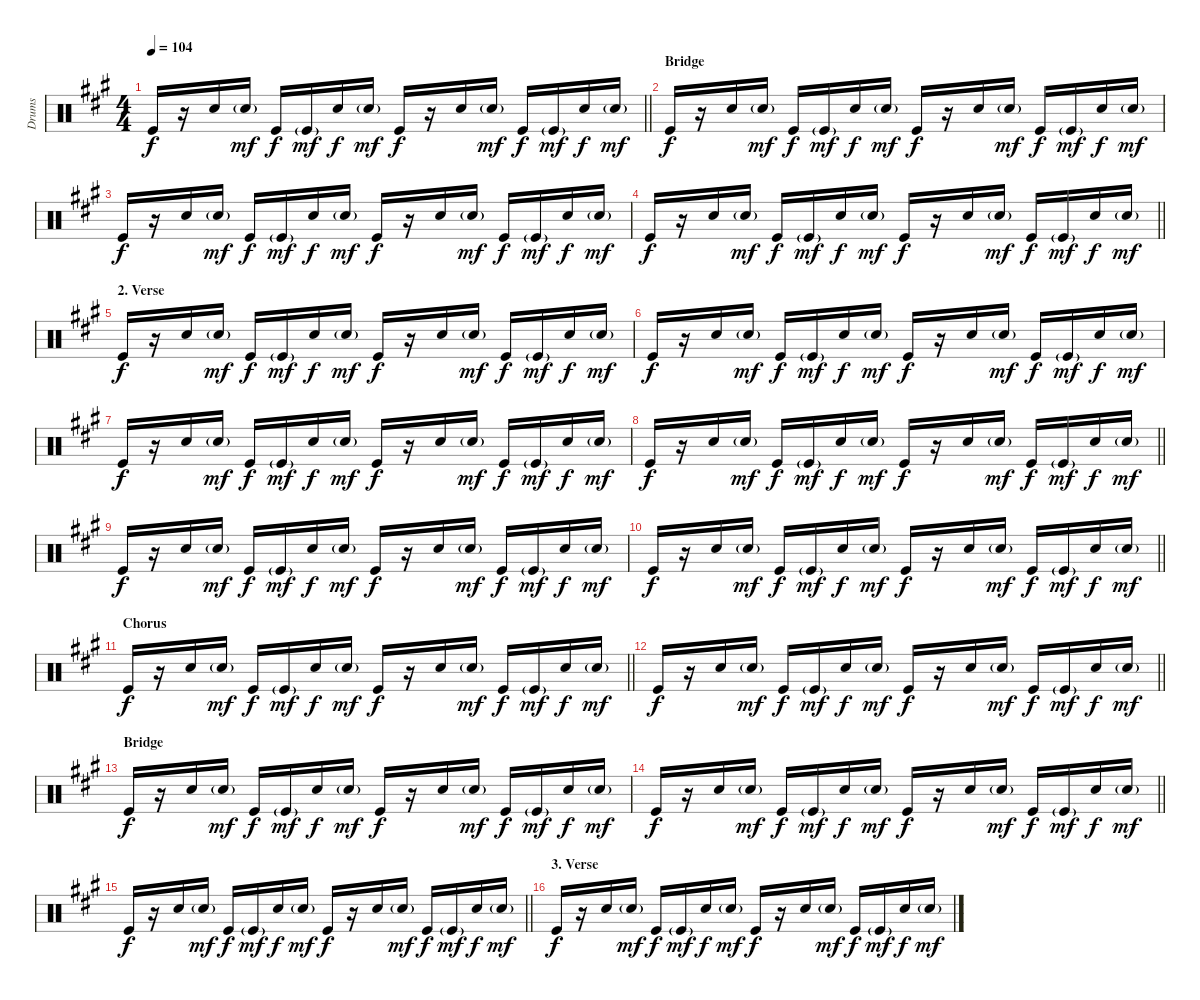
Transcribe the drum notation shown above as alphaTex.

\track ("Drums" "Drums") {mute instrument percussion}
\staff {score}
\articulation defaults
\ts (4 4)
\tempo 104
\clef neutral
\barLineRight lightlight
\ks a "Kick (hit)".16{dy f}
r.16 "Snare (hit) 2".16 "Snare (hit) 2"{g}.16{dy mf} "Kick (hit)".16{dy f} "Kick (hit)"{g}.16{dy mf} "Snare (hit) 2".16{dy f} "Snare (hit) 2"{g}.16{dy mf} "Kick (hit)".16{dy f} r.16 "Snare (hit) 2".16 "Snare (hit) 2"{g}.16{dy mf} "Kick (hit)".16{dy f} "Kick (hit)"{g}.16{dy mf} "Snare (hit) 2".16{dy f} "Snare (hit) 2"{g}.16{dy mf} |
\section ("" "Bridge")
"Kick (hit)".16{dy f} r.16 "Snare (hit) 2".16 "Snare (hit) 2"{g}.16{dy mf} "Kick (hit)".16{dy f} "Kick (hit)"{g}.16{dy mf} "Snare (hit) 2".16{dy f} "Snare (hit) 2"{g}.16{dy mf} "Kick (hit)".16{dy f} r.16 "Snare (hit) 2".16 "Snare (hit) 2"{g}.16{dy mf} "Kick (hit)".16{dy f} "Kick (hit)"{g}.16{dy mf} "Snare (hit) 2".16{dy f} "Snare (hit) 2"{g}.16{dy mf} |
"Kick (hit)".16{dy f} r.16 "Snare (hit) 2".16 "Snare (hit) 2"{g}.16{dy mf} "Kick (hit)".16{dy f} "Kick (hit)"{g}.16{dy mf} "Snare (hit) 2".16{dy f} "Snare (hit) 2"{g}.16{dy mf} "Kick (hit)".16{dy f} r.16 "Snare (hit) 2".16 "Snare (hit) 2"{g}.16{dy mf} "Kick (hit)".16{dy f} "Kick (hit)"{g}.16{dy mf} "Snare (hit) 2".16{dy f} "Snare (hit) 2"{g}.16{dy mf} |
\barLineRight lightlight "Kick (hit)".16{dy f}
r.16 "Snare (hit) 2".16 "Snare (hit) 2"{g}.16{dy mf} "Kick (hit)".16{dy f} "Kick (hit)"{g}.16{dy mf} "Snare (hit) 2".16{dy f} "Snare (hit) 2"{g}.16{dy mf} "Kick (hit)".16{dy f} r.16 "Snare (hit) 2".16 "Snare (hit) 2"{g}.16{dy mf} "Kick (hit)".16{dy f} "Kick (hit)"{g}.16{dy mf} "Snare (hit) 2".16{dy f} "Snare (hit) 2"{g}.16{dy mf} |
\section ("" "2. Verse")
"Kick (hit)".16{dy f} r.16 "Snare (hit) 2".16 "Snare (hit) 2"{g}.16{dy mf} "Kick (hit)".16{dy f} "Kick (hit)"{g}.16{dy mf} "Snare (hit) 2".16{dy f} "Snare (hit) 2"{g}.16{dy mf} "Kick (hit)".16{dy f} r.16 "Snare (hit) 2".16 "Snare (hit) 2"{g}.16{dy mf} "Kick (hit)".16{dy f} "Kick (hit)"{g}.16{dy mf} "Snare (hit) 2".16{dy f} "Snare (hit) 2"{g}.16{dy mf} |
"Kick (hit)".16{dy f} r.16 "Snare (hit) 2".16 "Snare (hit) 2"{g}.16{dy mf} "Kick (hit)".16{dy f} "Kick (hit)"{g}.16{dy mf} "Snare (hit) 2".16{dy f} "Snare (hit) 2"{g}.16{dy mf} "Kick (hit)".16{dy f} r.16 "Snare (hit) 2".16 "Snare (hit) 2"{g}.16{dy mf} "Kick (hit)".16{dy f} "Kick (hit)"{g}.16{dy mf} "Snare (hit) 2".16{dy f} "Snare (hit) 2"{g}.16{dy mf} |
"Kick (hit)".16{dy f} r.16 "Snare (hit) 2".16 "Snare (hit) 2"{g}.16{dy mf} "Kick (hit)".16{dy f} "Kick (hit)"{g}.16{dy mf} "Snare (hit) 2".16{dy f} "Snare (hit) 2"{g}.16{dy mf} "Kick (hit)".16{dy f} r.16 "Snare (hit) 2".16 "Snare (hit) 2"{g}.16{dy mf} "Kick (hit)".16{dy f} "Kick (hit)"{g}.16{dy mf} "Snare (hit) 2".16{dy f} "Snare (hit) 2"{g}.16{dy mf} |
\barLineRight lightlight "Kick (hit)".16{dy f}
r.16 "Snare (hit) 2".16 "Snare (hit) 2"{g}.16{dy mf} "Kick (hit)".16{dy f} "Kick (hit)"{g}.16{dy mf} "Snare (hit) 2".16{dy f} "Snare (hit) 2"{g}.16{dy mf} "Kick (hit)".16{dy f} r.16 "Snare (hit) 2".16 "Snare (hit) 2"{g}.16{dy mf} "Kick (hit)".16{dy f} "Kick (hit)"{g}.16{dy mf} "Snare (hit) 2".16{dy f} "Snare (hit) 2"{g}.16{dy mf} |
"Kick (hit)".16{dy f} r.16 "Snare (hit) 2".16 "Snare (hit) 2"{g}.16{dy mf} "Kick (hit)".16{dy f} "Kick (hit)"{g}.16{dy mf} "Snare (hit) 2".16{dy f} "Snare (hit) 2"{g}.16{dy mf} "Kick (hit)".16{dy f} r.16 "Snare (hit) 2".16 "Snare (hit) 2"{g}.16{dy mf} "Kick (hit)".16{dy f} "Kick (hit)"{g}.16{dy mf} "Snare (hit) 2".16{dy f} "Snare (hit) 2"{g}.16{dy mf} |
\barLineRight lightlight "Kick (hit)".16{dy f}
r.16 "Snare (hit) 2".16 "Snare (hit) 2"{g}.16{dy mf} "Kick (hit)".16{dy f} "Kick (hit)"{g}.16{dy mf} "Snare (hit) 2".16{dy f} "Snare (hit) 2"{g}.16{dy mf} "Kick (hit)".16{dy f} r.16 "Snare (hit) 2".16 "Snare (hit) 2"{g}.16{dy mf} "Kick (hit)".16{dy f} "Kick (hit)"{g}.16{dy mf} "Snare (hit) 2".16{dy f} "Snare (hit) 2"{g}.16{dy mf} |
\section ("" "Chorus")
\barLineRight lightlight "Kick (hit)".16{dy f}
r.16 "Snare (hit) 2".16 "Snare (hit) 2"{g}.16{dy mf} "Kick (hit)".16{dy f} "Kick (hit)"{g}.16{dy mf} "Snare (hit) 2".16{dy f} "Snare (hit) 2"{g}.16{dy mf} "Kick (hit)".16{dy f} r.16 "Snare (hit) 2".16 "Snare (hit) 2"{g}.16{dy mf} "Kick (hit)".16{dy f} "Kick (hit)"{g}.16{dy mf} "Snare (hit) 2".16{dy f} "Snare (hit) 2"{g}.16{dy mf} |
\barLineRight lightlight "Kick (hit)".16{dy f}
r.16 "Snare (hit) 2".16 "Snare (hit) 2"{g}.16{dy mf} "Kick (hit)".16{dy f} "Kick (hit)"{g}.16{dy mf} "Snare (hit) 2".16{dy f} "Snare (hit) 2"{g}.16{dy mf} "Kick (hit)".16{dy f} r.16 "Snare (hit) 2".16 "Snare (hit) 2"{g}.16{dy mf} "Kick (hit)".16{dy f} "Kick (hit)"{g}.16{dy mf} "Snare (hit) 2".16{dy f} "Snare (hit) 2"{g}.16{dy mf} |
\section ("" "Bridge")
"Kick (hit)".16{dy f} r.16 "Snare (hit) 2".16 "Snare (hit) 2"{g}.16{dy mf} "Kick (hit)".16{dy f} "Kick (hit)"{g}.16{dy mf} "Snare (hit) 2".16{dy f} "Snare (hit) 2"{g}.16{dy mf} "Kick (hit)".16{dy f} r.16 "Snare (hit) 2".16 "Snare (hit) 2"{g}.16{dy mf} "Kick (hit)".16{dy f} "Kick (hit)"{g}.16{dy mf} "Snare (hit) 2".16{dy f} "Snare (hit) 2"{g}.16{dy mf} |
\barLineRight lightlight "Kick (hit)".16{dy f}
r.16 "Snare (hit) 2".16 "Snare (hit) 2"{g}.16{dy mf} "Kick (hit)".16{dy f} "Kick (hit)"{g}.16{dy mf} "Snare (hit) 2".16{dy f} "Snare (hit) 2"{g}.16{dy mf} "Kick (hit)".16{dy f} r.16 "Snare (hit) 2".16 "Snare (hit) 2"{g}.16{dy mf} "Kick (hit)".16{dy f} "Kick (hit)"{g}.16{dy mf} "Snare (hit) 2".16{dy f} "Snare (hit) 2"{g}.16{dy mf} |
\barLineRight lightlight "Kick (hit)".16{dy f}
r.16 "Snare (hit) 2".16 "Snare (hit) 2"{g}.16{dy mf} "Kick (hit)".16{dy f} "Kick (hit)"{g}.16{dy mf} "Snare (hit) 2".16{dy f} "Snare (hit) 2"{g}.16{dy mf} "Kick (hit)".16{dy f} r.16 "Snare (hit) 2".16 "Snare (hit) 2"{g}.16{dy mf} "Kick (hit)".16{dy f} "Kick (hit)"{g}.16{dy mf} "Snare (hit) 2".16{dy f} "Snare (hit) 2"{g}.16{dy mf} |
\section ("" "3. Verse")
"Kick (hit)".16{dy f} r.16 "Snare (hit) 2".16 "Snare (hit) 2"{g}.16{dy mf} "Kick (hit)".16{dy f} "Kick (hit)"{g}.16{dy mf} "Snare (hit) 2".16{dy f} "Snare (hit) 2"{g}.16{dy mf} "Kick (hit)".16{dy f} r.16 "Snare (hit) 2".16 "Snare (hit) 2"{g}.16{dy mf} "Kick (hit)".16{dy f} "Kick (hit)"{g}.16{dy mf} "Snare (hit) 2".16{dy f} "Snare (hit) 2"{g}.16{dy mf}
